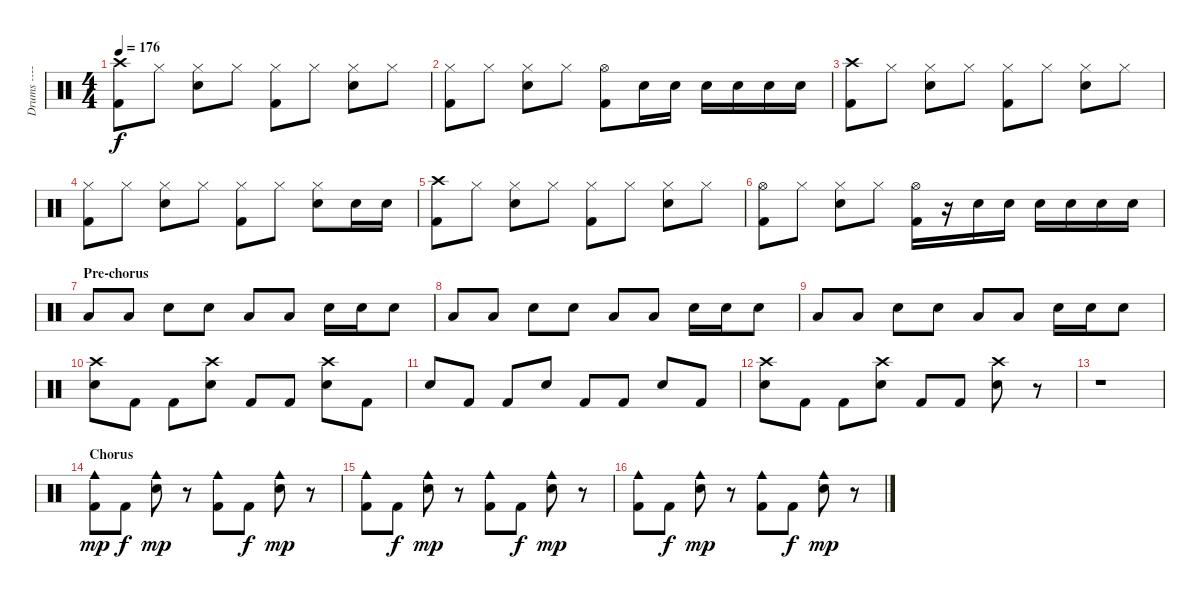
\track ("Drums ----- Larry Mullen Junior" "Drums ----") {instrument percussion}
\staff {score}
\articulation defaults
\ts (4 4)
\tempo 176
\clef neutral
\ks c
("Kick (hit) 2" "Crash high (hit)").8{dy f} "Hi-Hat (closed)".8 ("Electric Snare (hit)" "Hi-Hat (closed)").8 "Hi-Hat (closed)".8 ("Kick (hit) 2" "Hi-Hat (closed)").8 "Hi-Hat (closed)".8 ("Electric Snare (hit)" "Hi-Hat (closed)").8 "Hi-Hat (closed)".8 |
("Kick (hit) 2" "Hi-Hat (closed)").8 "Hi-Hat (closed)".8 ("Electric Snare (hit)" "Hi-Hat (closed)").8 "Hi-Hat (closed)".8 ("Kick (hit) 2" "Hi-Hat (open)").8 "Electric Snare (hit)".16 "Electric Snare (hit)".16 "Electric Snare (hit)".16 "Electric Snare (hit)".16 "Electric Snare (hit)".16 "Electric Snare (hit)".16 |
("Kick (hit) 2" "Crash high (hit)").8 "Hi-Hat (closed)".8 ("Electric Snare (hit)" "Hi-Hat (closed)").8 "Hi-Hat (closed)".8 ("Kick (hit) 2" "Hi-Hat (closed)").8 "Hi-Hat (closed)".8 ("Electric Snare (hit)" "Hi-Hat (closed)").8 "Hi-Hat (closed)".8 |
("Kick (hit) 2" "Hi-Hat (closed)").8 "Hi-Hat (closed)".8 ("Electric Snare (hit)" "Hi-Hat (closed)").8 "Hi-Hat (closed)".8 ("Kick (hit) 2" "Hi-Hat (closed)").8 "Hi-Hat (closed)".8 ("Electric Snare (hit)" "Hi-Hat (closed)").8 "Electric Snare (hit)".16 "Electric Snare (hit)".16 |
("Kick (hit) 2" "Crash high (hit)").8 "Hi-Hat (closed)".8 ("Electric Snare (hit)" "Hi-Hat (closed)").8 "Hi-Hat (closed)".8 ("Kick (hit) 2" "Hi-Hat (closed)").8 "Hi-Hat (closed)".8 ("Electric Snare (hit)" "Hi-Hat (closed)").8 "Hi-Hat (closed)".8 |
("Kick (hit) 2" "Hi-Hat (open)").8 "Hi-Hat (closed)".8 ("Electric Snare (hit)" "Hi-Hat (closed)").8 "Hi-Hat (closed)".8 ("Kick (hit) 2" "Hi-Hat (open)").16 r.16 "Electric Snare (hit)".16 "Electric Snare (hit)".16 "Electric Snare (hit)".16 "Electric Snare (hit)".16 "Electric Snare (hit)".16 "Electric Snare (hit)".16 |
\section ("" "Pre-chorus")
"Low Floor Tom (hit)".8 "Low Floor Tom (hit)".8 "Electric Snare (hit)".8 "Electric Snare (hit)".8 "Low Floor Tom (hit)".8 "Low Floor Tom (hit)".8 "Electric Snare (hit)".16 "Electric Snare (hit)".16 "Electric Snare (hit)".8 |
"Low Floor Tom (hit)".8 "Low Floor Tom (hit)".8 "Electric Snare (hit)".8 "Electric Snare (hit)".8 "Low Floor Tom (hit)".8 "Low Floor Tom (hit)".8 "Electric Snare (hit)".16 "Electric Snare (hit)".16 "Electric Snare (hit)".8 |
"Low Floor Tom (hit)".8 "Low Floor Tom (hit)".8 "Electric Snare (hit)".8 "Electric Snare (hit)".8 "Low Floor Tom (hit)".8 "Low Floor Tom (hit)".8 "Electric Snare (hit)".16 "Electric Snare (hit)".16 "Electric Snare (hit)".8 |
("Electric Snare (hit)" "Crash high (hit)").8 "Kick (hit) 2".8 "Kick (hit) 2".8 ("Electric Snare (hit)" "Crash high (hit)").8 "Kick (hit) 2".8 "Kick (hit) 2".8 ("Electric Snare (hit)" "Crash high (hit)").8 "Kick (hit) 2".8 |
"Electric Snare (hit)".8 "Kick (hit) 2".8 "Kick (hit) 2".8 "Electric Snare (hit)".8 "Kick (hit) 2".8 "Kick (hit) 2".8 "Electric Snare (hit)".8 "Kick (hit) 2".8 |
("Electric Snare (hit)" "Crash high (hit)").8 "Kick (hit) 2".8 "Kick (hit) 2".8 ("Electric Snare (hit)" "Crash high (hit)").8 "Kick (hit) 2".8 "Kick (hit) 2".8 ("Electric Snare (hit)" "Crash high (hit)").8 r.8 |
r.1 |
\section ("" "Chorus")
("Kick (hit) 2" "Cowbell medium (hit)").8{dy mp} "Kick (hit) 2".8{dy f} ("Electric Snare (hit)" "Cowbell medium (hit)").8{dy mp} r.8 ("Kick (hit) 2" "Cowbell medium (hit)").8 "Kick (hit) 2".8{dy f} ("Electric Snare (hit)" "Cowbell medium (hit)").8{dy mp} r.8 |
("Kick (hit) 2" "Cowbell medium (hit)").8 "Kick (hit) 2".8{dy f} ("Electric Snare (hit)" "Cowbell medium (hit)").8{dy mp} r.8 ("Kick (hit) 2" "Cowbell medium (hit)").8 "Kick (hit) 2".8{dy f} ("Electric Snare (hit)" "Cowbell medium (hit)").8{dy mp} r.8 |
("Kick (hit) 2" "Cowbell medium (hit)").8 "Kick (hit) 2".8{dy f} ("Electric Snare (hit)" "Cowbell medium (hit)").8{dy mp} r.8 ("Kick (hit) 2" "Cowbell medium (hit)").8 "Kick (hit) 2".8{dy f} ("Electric Snare (hit)" "Cowbell medium (hit)").8{dy mp} r.8
